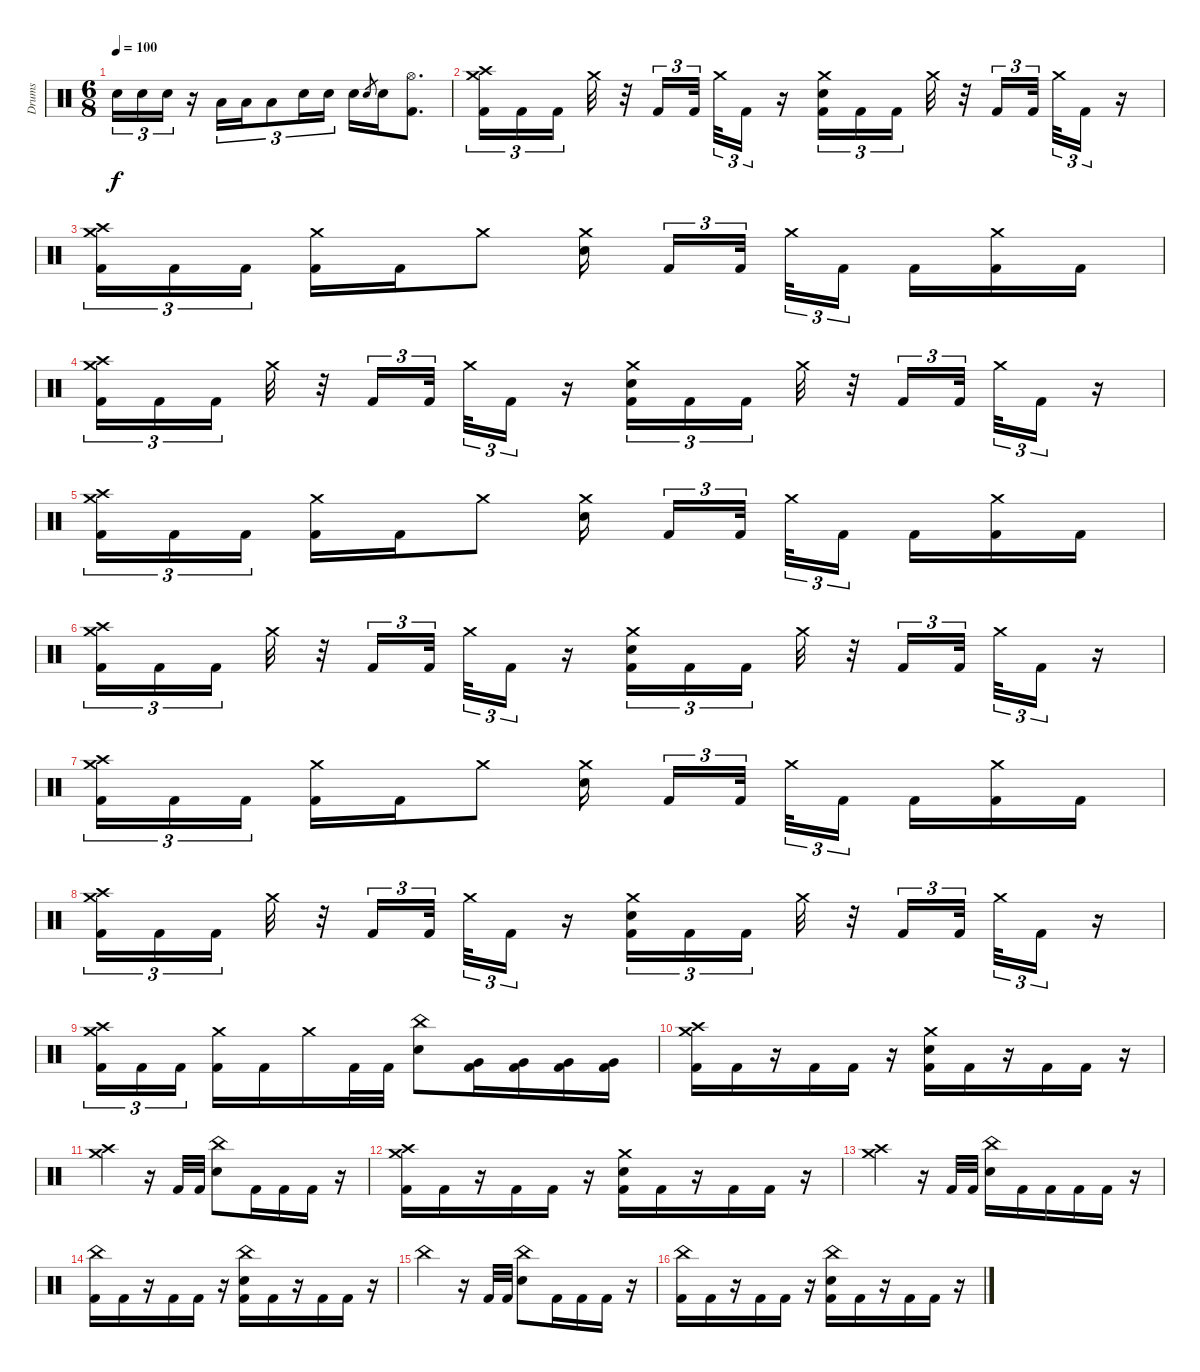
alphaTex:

\track ("Drums" "Drums") {instrument percussion}
\staff {score}
\articulation defaults
\ts (6 8)
\tempo 100
\clef neutral
\ks c "Electric Snare (hit)".16{tu (3 2) dy f} "Electric Snare (hit)".16{tu (3 2)} "Electric Snare (hit)".16{tu (3 2)}
r.16 "Low Tom (hit)".16{tu (3 2)} "Low Tom (hit)".16{tu (3 2)} "Low Tom (hit)".8{tu (3 2)} "Electric Snare (hit)".16{tu (3 2)} "Electric Snare (hit)".16{tu (3 2) beam splitsecondary} "Electric Snare (hit)".16 "Electric Snare (hit)".8{gr} "Electric Snare (hit)".16 ("Hi-Hat (open)" "Kick (hit) 2").8{d} |
("Crash medium (hit)" "Crash high (hit)" "Kick (hit) 2").16{tu (3 2)} "Kick (hit) 2".16{tu (3 2)} "Kick (hit) 2".16{tu (3 2) beam splitsecondary} "Crash medium (hit)".32 r.32 "Kick (hit) 2".16{tu (3 2)} "Kick (hit) 2".32{tu (3 2) beam splitsecondary} "Crash medium (hit)".32{tu (3 2)} "Kick (hit) 2".16{tu (3 2)} r.16 ("Crash medium (hit)" "Electric Snare (hit)" "Kick (hit) 2").16{tu (3 2)} "Kick (hit) 2".16{tu (3 2)} "Kick (hit) 2".16{tu (3 2) beam splitsecondary} "Crash medium (hit)".32 r.32 "Kick (hit) 2".16{tu (3 2)} "Kick (hit) 2".32{tu (3 2) beam splitsecondary} "Crash medium (hit)".32{tu (3 2)} "Kick (hit) 2".16{tu (3 2)} r.16 |
("Crash medium (hit)" "Crash high (hit)" "Kick (hit) 2").16{tu (3 2)} "Kick (hit) 2".16{tu (3 2)} "Kick (hit) 2".16{tu (3 2) beam splitsecondary} ("Crash medium (hit)" "Kick (hit) 2").16 "Kick (hit) 2".16 "Crash medium (hit)".8 ("Crash medium (hit)" "Electric Snare (hit)").16{beam splitsecondary} "Kick (hit) 2".16{tu (3 2)} "Kick (hit) 2".32{tu (3 2) beam splitsecondary} "Crash medium (hit)".32{tu (3 2)} "Kick (hit) 2".16{tu (3 2) beam splitsecondary} "Kick (hit) 2".16 ("Crash medium (hit)" "Kick (hit) 2").16 "Kick (hit) 2".16 |
("Crash medium (hit)" "Crash high (hit)" "Kick (hit) 2").16{tu (3 2)} "Kick (hit) 2".16{tu (3 2)} "Kick (hit) 2".16{tu (3 2) beam splitsecondary} "Crash medium (hit)".32 r.32 "Kick (hit) 2".16{tu (3 2)} "Kick (hit) 2".32{tu (3 2) beam splitsecondary} "Crash medium (hit)".32{tu (3 2)} "Kick (hit) 2".16{tu (3 2)} r.16 ("Crash medium (hit)" "Electric Snare (hit)" "Kick (hit) 2").16{tu (3 2)} "Kick (hit) 2".16{tu (3 2)} "Kick (hit) 2".16{tu (3 2) beam splitsecondary} "Crash medium (hit)".32 r.32 "Kick (hit) 2".16{tu (3 2)} "Kick (hit) 2".32{tu (3 2) beam splitsecondary} "Crash medium (hit)".32{tu (3 2)} "Kick (hit) 2".16{tu (3 2)} r.16 |
("Crash medium (hit)" "Crash high (hit)" "Kick (hit) 2").16{tu (3 2)} "Kick (hit) 2".16{tu (3 2)} "Kick (hit) 2".16{tu (3 2) beam splitsecondary} ("Crash medium (hit)" "Kick (hit) 2").16 "Kick (hit) 2".16 "Crash medium (hit)".8 ("Crash medium (hit)" "Electric Snare (hit)").16{beam splitsecondary} "Kick (hit) 2".16{tu (3 2)} "Kick (hit) 2".32{tu (3 2) beam splitsecondary} "Crash medium (hit)".32{tu (3 2)} "Kick (hit) 2".16{tu (3 2) beam splitsecondary} "Kick (hit) 2".16 ("Crash medium (hit)" "Kick (hit) 2").16 "Kick (hit) 2".16 |
("Crash medium (hit)" "Crash high (hit)" "Kick (hit) 2").16{tu (3 2)} "Kick (hit) 2".16{tu (3 2)} "Kick (hit) 2".16{tu (3 2) beam splitsecondary} "Crash medium (hit)".32 r.32 "Kick (hit) 2".16{tu (3 2)} "Kick (hit) 2".32{tu (3 2) beam splitsecondary} "Crash medium (hit)".32{tu (3 2)} "Kick (hit) 2".16{tu (3 2)} r.16 ("Crash medium (hit)" "Electric Snare (hit)" "Kick (hit) 2").16{tu (3 2)} "Kick (hit) 2".16{tu (3 2)} "Kick (hit) 2".16{tu (3 2) beam splitsecondary} "Crash medium (hit)".32 r.32 "Kick (hit) 2".16{tu (3 2)} "Kick (hit) 2".32{tu (3 2) beam splitsecondary} "Crash medium (hit)".32{tu (3 2)} "Kick (hit) 2".16{tu (3 2)} r.16 |
("Crash medium (hit)" "Crash high (hit)" "Kick (hit) 2").16{tu (3 2)} "Kick (hit) 2".16{tu (3 2)} "Kick (hit) 2".16{tu (3 2) beam splitsecondary} ("Crash medium (hit)" "Kick (hit) 2").16 "Kick (hit) 2".16 "Crash medium (hit)".8 ("Crash medium (hit)" "Electric Snare (hit)").16{beam splitsecondary} "Kick (hit) 2".16{tu (3 2)} "Kick (hit) 2".32{tu (3 2) beam splitsecondary} "Crash medium (hit)".32{tu (3 2)} "Kick (hit) 2".16{tu (3 2) beam splitsecondary} "Kick (hit) 2".16 ("Crash medium (hit)" "Kick (hit) 2").16 "Kick (hit) 2".16 |
("Crash medium (hit)" "Crash high (hit)" "Kick (hit) 2").16{tu (3 2)} "Kick (hit) 2".16{tu (3 2)} "Kick (hit) 2".16{tu (3 2) beam splitsecondary} "Crash medium (hit)".32 r.32 "Kick (hit) 2".16{tu (3 2)} "Kick (hit) 2".32{tu (3 2) beam splitsecondary} "Crash medium (hit)".32{tu (3 2)} "Kick (hit) 2".16{tu (3 2)} r.16 ("Crash medium (hit)" "Electric Snare (hit)" "Kick (hit) 2").16{tu (3 2)} "Kick (hit) 2".16{tu (3 2)} "Kick (hit) 2".16{tu (3 2) beam splitsecondary} "Crash medium (hit)".32 r.32 "Kick (hit) 2".16{tu (3 2)} "Kick (hit) 2".32{tu (3 2) beam splitsecondary} "Crash medium (hit)".32{tu (3 2)} "Kick (hit) 2".16{tu (3 2)} r.16 |
("Crash medium (hit)" "Crash high (hit)" "Kick (hit) 2").16{tu (3 2)} "Kick (hit) 2".16{tu (3 2)} "Kick (hit) 2".16{tu (3 2) beam splitsecondary} ("Crash medium (hit)" "Kick (hit) 2").16 "Kick (hit) 2".16 "Crash medium (hit)".16 "Kick (hit) 2".32 "Kick (hit) 2".32 ("China (hit)" "Electric Snare (hit)").8 ("Very Low Tom (hit)" "Kick (hit) 2").16 ("Very Low Tom (hit)" "Kick (hit) 2").16 ("Very Low Tom (hit)" "Kick (hit) 2").16 ("Very Low Tom (hit)" "Kick (hit) 2").16 |
("Crash medium (hit)" "Crash high (hit)" "Kick (hit) 2").16 "Kick (hit) 2".16 r.16 "Kick (hit) 2".16 "Kick (hit) 2".16 r.16 ("Crash medium (hit)" "Electric Snare (hit)" "Kick (hit) 2").16 "Kick (hit) 2".16 r.16 "Kick (hit) 2".16 "Kick (hit) 2".16 r.16 |
("Crash medium (hit)" "Crash high (hit)").4 r.16 "Kick (hit) 2".32 "Kick (hit) 2".32 ("China (hit)" "Electric Snare (hit)").8 "Kick (hit) 2".16 "Kick (hit) 2".16 "Kick (hit) 2".16 r.16 |
("Crash medium (hit)" "Crash high (hit)" "Kick (hit) 2").16 "Kick (hit) 2".16 r.16 "Kick (hit) 2".16 "Kick (hit) 2".16 r.16 ("Crash medium (hit)" "Electric Snare (hit)" "Kick (hit) 2").16 "Kick (hit) 2".16 r.16 "Kick (hit) 2".16 "Kick (hit) 2".16 r.16 |
("Crash medium (hit)" "Crash high (hit)").4 r.16 "Kick (hit) 2".32 "Kick (hit) 2".32 ("China (hit)" "Electric Snare (hit)").16 "Kick (hit) 2".16 "Kick (hit) 2".16 "Kick (hit) 2".16 "Kick (hit) 2".16 r.16 |
("China (hit)" "Kick (hit) 2").16 "Kick (hit) 2".16 r.16 "Kick (hit) 2".16 "Kick (hit) 2".16 r.16 ("China (hit)" "Electric Snare (hit)" "Kick (hit) 2").16 "Kick (hit) 2".16 r.16 "Kick (hit) 2".16 "Kick (hit) 2".16 r.16 |
"China (hit)".4 r.16 "Kick (hit) 2".32 "Kick (hit) 2".32 ("China (hit)" "Electric Snare (hit)").8 "Kick (hit) 2".16 "Kick (hit) 2".16 "Kick (hit) 2".16 r.16 |
("China (hit)" "Kick (hit) 2").16 "Kick (hit) 2".16 r.16 "Kick (hit) 2".16 "Kick (hit) 2".16 r.16 ("China (hit)" "Electric Snare (hit)" "Kick (hit) 2").16 "Kick (hit) 2".16 r.16 "Kick (hit) 2".16 "Kick (hit) 2".16 r.16
